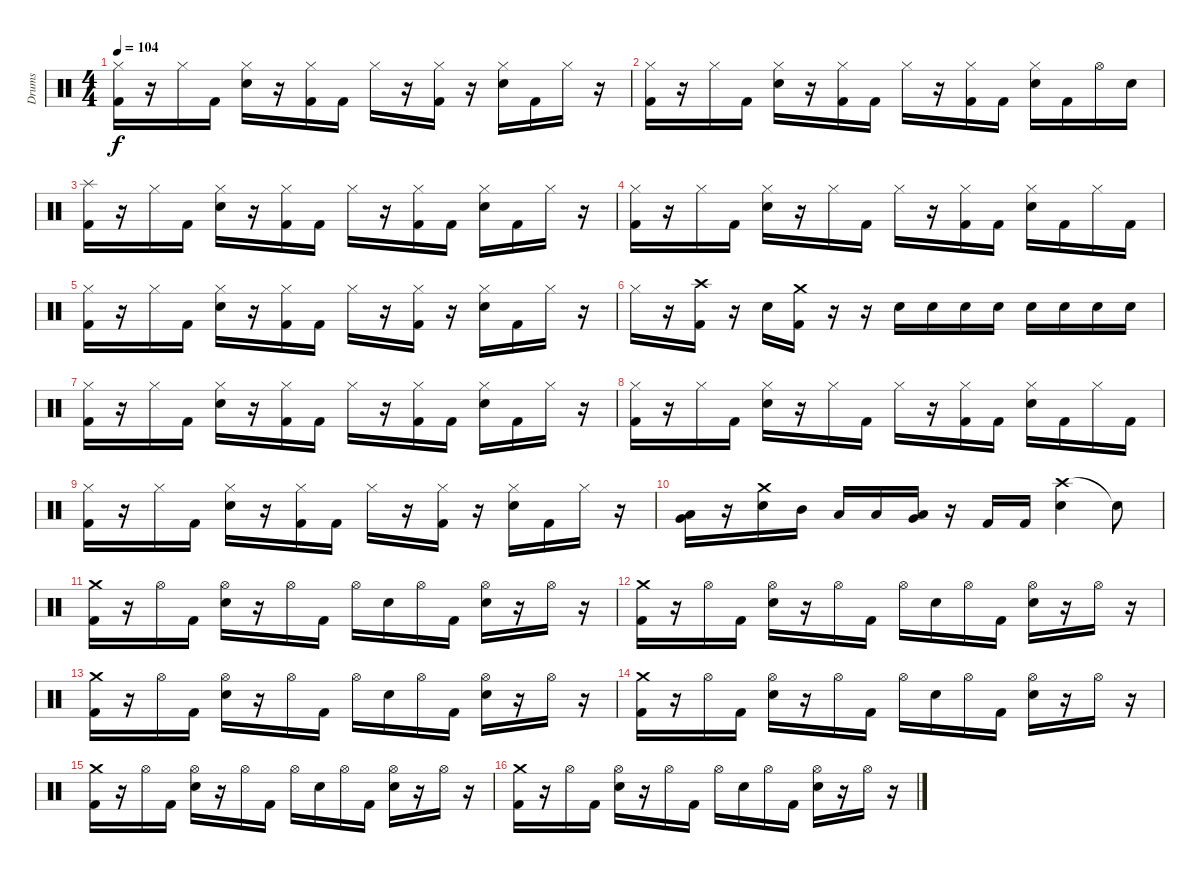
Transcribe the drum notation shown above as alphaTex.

\track ("Drums" "Drums") {instrument percussion}
\staff {score}
\articulation defaults
\ts (4 4)
\tempo 104
\clef neutral
\ks c
("Hi-Hat (closed)" "Kick (hit) 2").16{dy f} r.16 "Hi-Hat (closed)".16 "Kick (hit) 2".16 ("Hi-Hat (closed)" "Electric Snare (hit)").16 r.16 ("Hi-Hat (closed)" "Kick (hit) 2").16 "Kick (hit) 2".16 "Hi-Hat (closed)".16 r.16 ("Hi-Hat (closed)" "Kick (hit) 2").16 r.16 ("Hi-Hat (closed)" "Electric Snare (hit)").16 "Kick (hit) 2".16 "Hi-Hat (closed)".16 r.16 |
("Hi-Hat (closed)" "Kick (hit) 2").16 r.16 "Hi-Hat (closed)".16 "Kick (hit) 2".16 ("Hi-Hat (closed)" "Electric Snare (hit)").16 r.16 ("Hi-Hat (closed)" "Kick (hit) 2").16 "Kick (hit) 2".16 "Hi-Hat (closed)".16 r.16 ("Hi-Hat (closed)" "Kick (hit) 2").16 "Kick (hit) 2".16 ("Hi-Hat (closed)" "Electric Snare (hit)").16 "Kick (hit) 2".16 "Hi-Hat (open)".16 "Electric Snare (hit)".16 |
("Splash (hit)" "Kick (hit) 2").16 r.16 "Hi-Hat (closed)".16 "Kick (hit) 2".16 ("Hi-Hat (closed)" "Electric Snare (hit)").16 r.16 ("Hi-Hat (closed)" "Kick (hit) 2").16 "Kick (hit) 2".16 "Hi-Hat (closed)".16 r.16 ("Hi-Hat (closed)" "Kick (hit) 2").16 "Kick (hit) 2".16 ("Hi-Hat (closed)" "Electric Snare (hit)").16 "Kick (hit) 2".16 "Hi-Hat (closed)".16 r.16 |
("Hi-Hat (closed)" "Kick (hit) 2").16 r.16 "Hi-Hat (closed)".16 "Kick (hit) 2".16 ("Hi-Hat (closed)" "Electric Snare (hit)").16 r.16 "Hi-Hat (closed)".16 "Kick (hit) 2".16 "Hi-Hat (closed)".16 r.16 ("Hi-Hat (closed)" "Kick (hit) 2").16 "Kick (hit) 2".16 ("Hi-Hat (closed)" "Electric Snare (hit)").16 "Kick (hit) 2".16 "Hi-Hat (closed)".16 "Kick (hit) 2".16 |
("Hi-Hat (closed)" "Kick (hit) 2").16 r.16 "Hi-Hat (closed)".16 "Kick (hit) 2".16 ("Hi-Hat (closed)" "Electric Snare (hit)").16 r.16 ("Hi-Hat (closed)" "Kick (hit) 2").16 "Kick (hit) 2".16 "Hi-Hat (closed)".16 r.16 ("Hi-Hat (closed)" "Kick (hit) 2").16 r.16 ("Hi-Hat (closed)" "Electric Snare (hit)").16 "Kick (hit) 2".16 "Hi-Hat (closed)".16 r.16 |
"Hi-Hat (closed)".16 r.16 ("Crash high (hit)" "Kick (hit) 2").16 r.16 "Electric Snare (hit)".16 ("Crash medium (hit)" "Kick (hit) 2").16 r.16 r.16 "Electric Snare (hit)".16 "Electric Snare (hit)".16 "Electric Snare (hit)".16 "Electric Snare (hit)".16 "Electric Snare (hit)".16 "Electric Snare (hit)".16 "Electric Snare (hit)".16 "Electric Snare (hit)".16 |
("Hi-Hat (closed)" "Kick (hit) 2").16 r.16 "Hi-Hat (closed)".16 "Kick (hit) 2".16 ("Hi-Hat (closed)" "Electric Snare (hit)").16 r.16 ("Hi-Hat (closed)" "Kick (hit) 2").16 "Kick (hit) 2".16 "Hi-Hat (closed)".16 r.16 ("Hi-Hat (closed)" "Kick (hit) 2").16 "Kick (hit) 2".16 ("Hi-Hat (closed)" "Electric Snare (hit)").16 "Kick (hit) 2".16 "Hi-Hat (closed)".16 r.16 |
("Hi-Hat (closed)" "Kick (hit) 2").16 r.16 "Hi-Hat (closed)".16 "Kick (hit) 2".16 ("Hi-Hat (closed)" "Electric Snare (hit)").16 r.16 "Hi-Hat (closed)".16 "Kick (hit) 2".16 "Hi-Hat (closed)".16 r.16 ("Hi-Hat (closed)" "Kick (hit) 2").16 "Kick (hit) 2".16 ("Hi-Hat (closed)" "Electric Snare (hit)").16 "Kick (hit) 2".16 "Hi-Hat (closed)".16 "Kick (hit) 2".16 |
("Hi-Hat (closed)" "Kick (hit) 2").16 r.16 "Hi-Hat (closed)".16 "Kick (hit) 2".16 ("Hi-Hat (closed)" "Electric Snare (hit)").16 r.16 ("Hi-Hat (closed)" "Kick (hit) 2").16 "Kick (hit) 2".16 "Hi-Hat (closed)".16 r.16 ("Hi-Hat (closed)" "Kick (hit) 2").16 r.16 ("Hi-Hat (closed)" "Electric Snare (hit)").16 "Kick (hit) 2".16 "Hi-Hat (closed)".16 r.16 |
("Low Tom (hit)" "Very Low Tom (hit)").16 r.16 ("Crash medium (hit)" "Electric Snare (hit)").16 "Mid Tom (hit)".16 "Low Tom (hit)".16 "Low Tom (hit)".16 ("Very Low Tom (hit)" "Low Floor Tom (hit)").16 r.16 "Kick (hit) 2".16 "Kick (hit) 2".16 ("Crash high (hit)" "Electric Snare (hit)").4 "Snare (hit)"{t}.8 |
("Crash medium (hit)" "Kick (hit) 2").16 r.16 "Hi-Hat (open)".16 "Kick (hit) 2".16 ("Hi-Hat (open)" "Electric Snare (hit)").16 r.16 "Hi-Hat (open)".16 "Kick (hit) 2".16 "Hi-Hat (open)".16 "Electric Snare (hit)".16 "Hi-Hat (open)".16 "Kick (hit) 2".16 ("Hi-Hat (open)" "Electric Snare (hit)").16 r.16 "Hi-Hat (open)".16 r.16 |
("Crash medium (hit)" "Kick (hit) 2").16 r.16 "Hi-Hat (open)".16 "Kick (hit) 2".16 ("Hi-Hat (open)" "Electric Snare (hit)").16 r.16 "Hi-Hat (open)".16 "Kick (hit) 2".16 "Hi-Hat (open)".16 "Electric Snare (hit)".16 "Hi-Hat (open)".16 "Kick (hit) 2".16 ("Hi-Hat (open)" "Electric Snare (hit)").16 r.16 "Hi-Hat (open)".16 r.16 |
("Crash medium (hit)" "Kick (hit) 2").16 r.16 "Hi-Hat (open)".16 "Kick (hit) 2".16 ("Hi-Hat (open)" "Electric Snare (hit)").16 r.16 "Hi-Hat (open)".16 "Kick (hit) 2".16 "Hi-Hat (open)".16 "Electric Snare (hit)".16 "Hi-Hat (open)".16 "Kick (hit) 2".16 ("Hi-Hat (open)" "Electric Snare (hit)").16 r.16 "Hi-Hat (open)".16 r.16 |
("Crash medium (hit)" "Kick (hit) 2").16 r.16 "Hi-Hat (open)".16 "Kick (hit) 2".16 ("Hi-Hat (open)" "Electric Snare (hit)").16 r.16 "Hi-Hat (open)".16 "Kick (hit) 2".16 "Hi-Hat (open)".16 "Electric Snare (hit)".16 "Hi-Hat (open)".16 "Kick (hit) 2".16 ("Hi-Hat (open)" "Electric Snare (hit)").16 r.16 "Hi-Hat (open)".16 r.16 |
("Crash medium (hit)" "Kick (hit) 2").16 r.16 "Hi-Hat (open)".16 "Kick (hit) 2".16 ("Hi-Hat (open)" "Electric Snare (hit)").16 r.16 "Hi-Hat (open)".16 "Kick (hit) 2".16 "Hi-Hat (open)".16 "Electric Snare (hit)".16 "Hi-Hat (open)".16 "Kick (hit) 2".16 ("Hi-Hat (open)" "Electric Snare (hit)").16 r.16 "Hi-Hat (open)".16 r.16 |
("Crash medium (hit)" "Kick (hit) 2").16 r.16 "Hi-Hat (open)".16 "Kick (hit) 2".16 ("Hi-Hat (open)" "Electric Snare (hit)").16 r.16 "Hi-Hat (open)".16 "Kick (hit) 2".16 "Hi-Hat (open)".16 "Electric Snare (hit)".16 "Hi-Hat (open)".16 "Kick (hit) 2".16 ("Hi-Hat (open)" "Electric Snare (hit)").16 r.16 "Hi-Hat (open)".16 r.16
